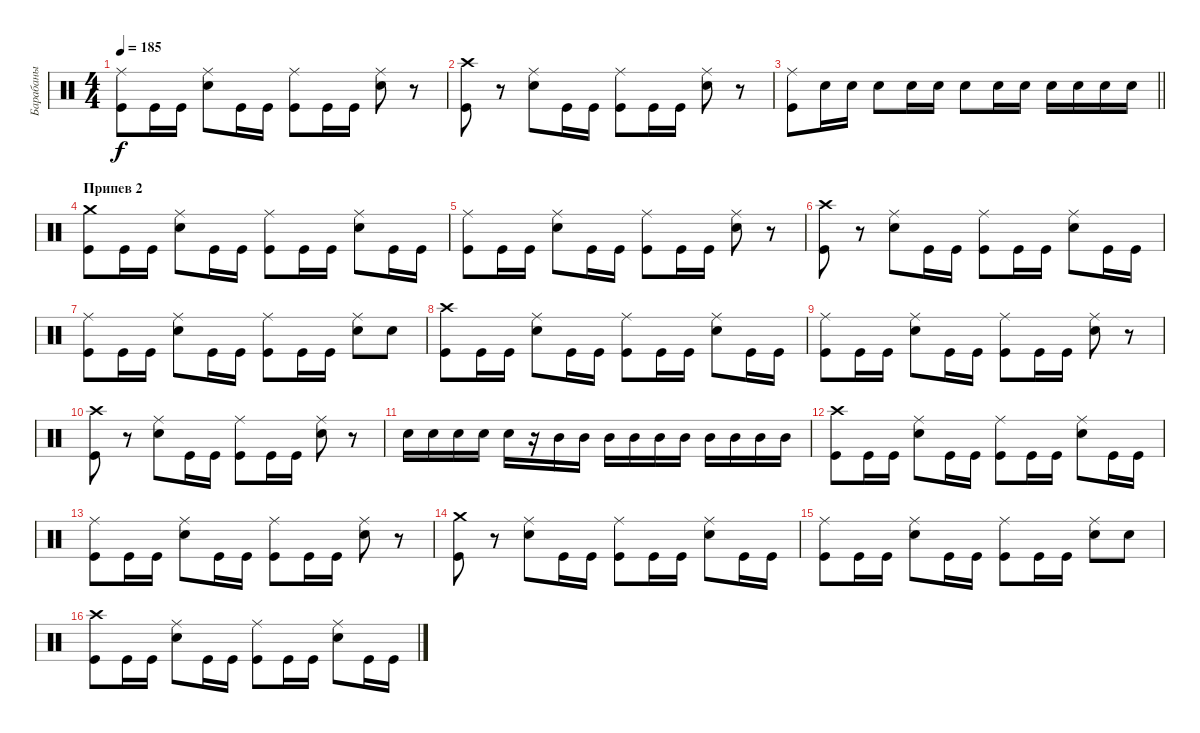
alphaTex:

\track ("Барабаны" "Барабаны") {instrument percussion}
\staff {score}
\articulation defaults
\ts (4 4)
\tempo 185
\clef neutral
\ks c
("Kick (hit)" "Ride (middle)").8{dy f} "Kick (hit)".16 "Kick (hit)".16 ("Snare (hit) 2" "Ride (middle)").8 "Kick (hit)".16 "Kick (hit)".16 ("Kick (hit)" "Ride (middle)").8 "Kick (hit)".16 "Kick (hit)".16 ("Snare (hit) 2" "Ride (middle)").8 r.8 |
("Kick (hit)" "Crash high (hit)").8 r.8 ("Snare (hit) 2" "Ride (middle)").8 "Kick (hit)".16 "Kick (hit)".16 ("Kick (hit)" "Ride (middle)").8 "Kick (hit)".16 "Kick (hit)".16 ("Snare (hit) 2" "Ride (middle)").8 r.8 |
\barLineRight lightlight
("Kick (hit)" "Ride (middle)").8 "Snare (hit) 2".16 "Snare (hit) 2".16 "Snare (hit) 2".8 "Snare (hit) 2".16 "Snare (hit) 2".16 "Snare (hit) 2".8 "Snare (hit) 2".16 "Snare (hit) 2".16 "Snare (hit) 2".16 "Snare (hit) 2".16 "Snare (hit) 2".16 "Snare (hit) 2".16 |
\section ("" "Припев 2")
("Kick (hit)" "Crash medium (hit)").8 "Kick (hit)".16 "Kick (hit)".16 ("Snare (hit) 2" "Ride (middle)").8 "Kick (hit)".16 "Kick (hit)".16 ("Kick (hit)" "Ride (middle)").8 "Kick (hit)".16 "Kick (hit)".16 ("Snare (hit) 2" "Ride (middle)").8 "Kick (hit)".16 "Kick (hit)".16 |
("Kick (hit)" "Ride (middle)").8 "Kick (hit)".16 "Kick (hit)".16 ("Snare (hit) 2" "Ride (middle)").8 "Kick (hit)".16 "Kick (hit)".16 ("Kick (hit)" "Ride (middle)").8 "Kick (hit)".16 "Kick (hit)".16 ("Snare (hit) 2" "Ride (middle)").8 r.8 |
("Kick (hit)" "Crash high (hit)").8 r.8 ("Snare (hit) 2" "Ride (middle)").8 "Kick (hit)".16 "Kick (hit)".16 ("Kick (hit)" "Ride (middle)").8 "Kick (hit)".16 "Kick (hit)".16 ("Snare (hit) 2" "Ride (middle)").8 "Kick (hit)".16 "Kick (hit)".16 |
("Kick (hit)" "Ride (middle)").8 "Kick (hit)".16 "Kick (hit)".16 ("Snare (hit) 2" "Ride (middle)").8 "Kick (hit)".16 "Kick (hit)".16 ("Kick (hit)" "Ride (middle)").8 "Kick (hit)".16 "Kick (hit)".16 ("Snare (hit) 2" "Ride (middle)").8 "Snare (hit) 2".8 |
("Kick (hit)" "Crash high (hit)").8 "Kick (hit)".16 "Kick (hit)".16 ("Snare (hit) 2" "Ride (middle)").8 "Kick (hit)".16 "Kick (hit)".16 ("Kick (hit)" "Ride (middle)").8 "Kick (hit)".16 "Kick (hit)".16 ("Snare (hit) 2" "Ride (middle)").8 "Kick (hit)".16 "Kick (hit)".16 |
("Kick (hit)" "Ride (middle)").8 "Kick (hit)".16 "Kick (hit)".16 ("Snare (hit) 2" "Ride (middle)").8 "Kick (hit)".16 "Kick (hit)".16 ("Kick (hit)" "Ride (middle)").8 "Kick (hit)".16 "Kick (hit)".16 ("Snare (hit) 2" "Ride (middle)").8 r.8 |
("Kick (hit)" "Crash high (hit)").8 r.8 ("Snare (hit) 2" "Ride (middle)").8 "Kick (hit)".16 "Kick (hit)".16 ("Kick (hit)" "Ride (middle)").8 "Kick (hit)".16 "Kick (hit)".16 ("Snare (hit) 2" "Ride (middle)").8 r.8 |
"Snare (hit) 2".16 "Snare (hit) 2".16 "Snare (hit) 2".16 "Snare (hit) 2".16 "Snare (hit) 2".16 r.16 "Mid Tom (hit)".16 "Mid Tom (hit)".16 "Mid Tom (hit)".16 "Mid Tom (hit)".16 "Mid Tom (hit)".16 "Mid Tom (hit)".16 "Mid Tom (hit)".16 "Mid Tom (hit)".16 "Mid Tom (hit)".16 "Mid Tom (hit)".16 |
("Kick (hit)" "Crash high (hit)").8 "Kick (hit)".16 "Kick (hit)".16 ("Snare (hit) 2" "Ride (middle)").8 "Kick (hit)".16 "Kick (hit)".16 ("Kick (hit)" "Ride (middle)").8 "Kick (hit)".16 "Kick (hit)".16 ("Snare (hit) 2" "Ride (middle)").8 "Kick (hit)".16 "Kick (hit)".16 |
("Kick (hit)" "Ride (middle)").8 "Kick (hit)".16 "Kick (hit)".16 ("Snare (hit) 2" "Ride (middle)").8 "Kick (hit)".16 "Kick (hit)".16 ("Kick (hit)" "Ride (middle)").8 "Kick (hit)".16 "Kick (hit)".16 ("Snare (hit) 2" "Ride (middle)").8 r.8 |
("Kick (hit)" "Crash medium (hit)").8 r.8 ("Snare (hit) 2" "Ride (middle)").8 "Kick (hit)".16 "Kick (hit)".16 ("Kick (hit)" "Ride (middle)").8 "Kick (hit)".16 "Kick (hit)".16 ("Snare (hit) 2" "Ride (middle)").8 "Kick (hit)".16 "Kick (hit)".16 |
("Kick (hit)" "Ride (middle)").8 "Kick (hit)".16 "Kick (hit)".16 ("Snare (hit) 2" "Ride (middle)").8 "Kick (hit)".16 "Kick (hit)".16 ("Kick (hit)" "Ride (middle)").8 "Kick (hit)".16 "Kick (hit)".16 ("Snare (hit) 2" "Ride (middle)").8 "Snare (hit) 2".8 |
("Kick (hit)" "Crash high (hit)").8 "Kick (hit)".16 "Kick (hit)".16 ("Snare (hit) 2" "Ride (middle)").8 "Kick (hit)".16 "Kick (hit)".16 ("Kick (hit)" "Ride (middle)").8 "Kick (hit)".16 "Kick (hit)".16 ("Snare (hit) 2" "Ride (middle)").8 "Kick (hit)".16 "Kick (hit)".16
